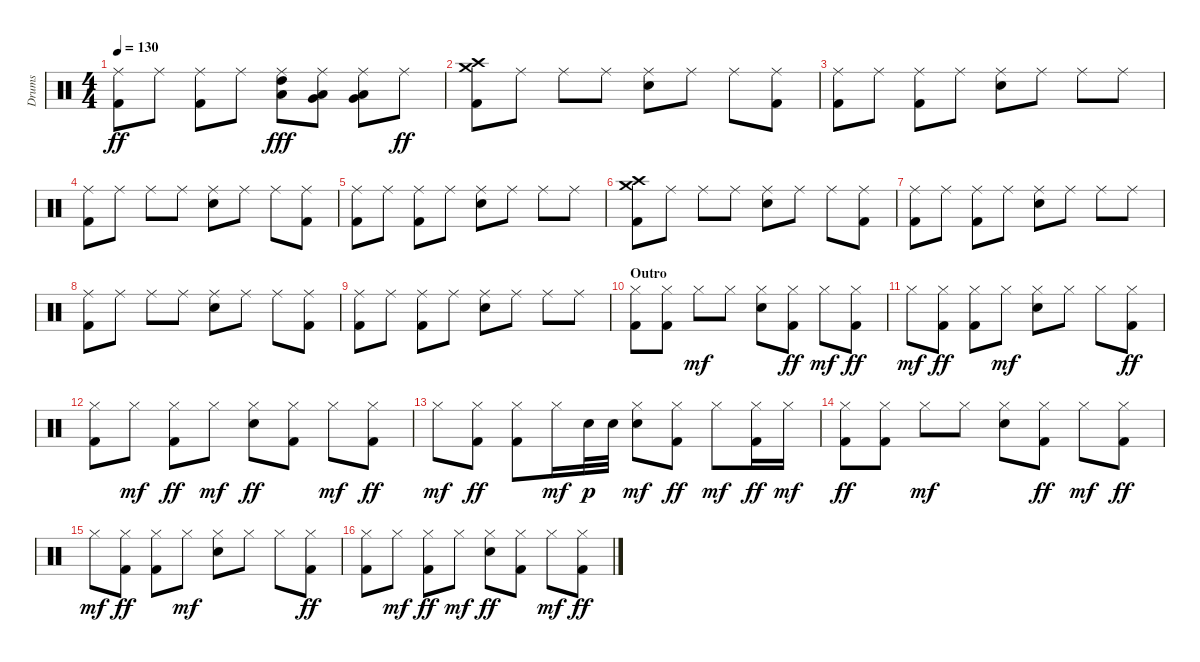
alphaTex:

\track ("Drums" "Drums") {instrument percussion}
\staff {score}
\articulation defaults
\ts (4 4)
\tempo 130
\clef neutral
\ks c
("Ride (middle)" "Kick (hit) 2").8{dy ff} "Ride (middle)".8 ("Ride (middle)" "Kick (hit) 2").8 "Ride (middle)".8 ("Ride (middle)" "Low Tom (hit)" "High Tom (hit)").8{dy fff} ("Ride (middle)" "Very Low Tom (hit)" "Low Tom (hit)").8 ("Ride (middle)" "Low Floor Tom (hit)" "Very Low Tom (hit)").8 "Ride (middle)".8{dy ff} |
("Kick (hit) 2" "Crash medium (hit)" "Crash high (hit)").8 "Ride (middle)".8 "Ride (middle)".8 "Ride (middle)".8 ("Ride (middle)" "Snare (hit) 2").8 "Ride (middle)".8 "Ride (middle)".8 ("Ride (middle)" "Kick (hit) 2").8 |
("Ride (middle)" "Kick (hit) 2").8 "Ride (middle)".8 ("Ride (middle)" "Kick (hit) 2").8 "Ride (middle)".8 ("Ride (middle)" "Snare (hit) 2").8 "Ride (middle)".8 "Ride (middle)".8 "Ride (middle)".8 |
("Ride (middle)" "Kick (hit) 2").8 "Ride (middle)".8 "Ride (middle)".8 "Ride (middle)".8 ("Ride (middle)" "Snare (hit) 2").8 "Ride (middle)".8 "Ride (middle)".8 ("Ride (middle)" "Kick (hit) 2").8 |
("Ride (middle)" "Kick (hit) 2").8 "Ride (middle)".8 ("Ride (middle)" "Kick (hit) 2").8 "Ride (middle)".8 ("Ride (middle)" "Snare (hit) 2").8 "Ride (middle)".8 "Ride (middle)".8 "Ride (middle)".8 |
("Kick (hit) 2" "Crash medium (hit)" "Crash high (hit)").8 "Ride (middle)".8 "Ride (middle)".8 "Ride (middle)".8 ("Ride (middle)" "Snare (hit) 2").8 "Ride (middle)".8 "Ride (middle)".8 ("Ride (middle)" "Kick (hit) 2").8 |
("Ride (middle)" "Kick (hit) 2").8 "Ride (middle)".8 ("Ride (middle)" "Kick (hit) 2").8 "Ride (middle)".8 ("Ride (middle)" "Snare (hit) 2").8 "Ride (middle)".8 "Ride (middle)".8 "Ride (middle)".8 |
("Ride (middle)" "Kick (hit) 2").8 "Ride (middle)".8 "Ride (middle)".8 "Ride (middle)".8 ("Ride (middle)" "Snare (hit) 2").8 "Ride (middle)".8 "Ride (middle)".8 ("Ride (middle)" "Kick (hit) 2").8 |
("Ride (middle)" "Kick (hit) 2").8 "Ride (middle)".8 ("Ride (middle)" "Kick (hit) 2").8 "Ride (middle)".8 ("Ride (middle)" "Snare (hit) 2").8 "Ride (middle)".8 "Ride (middle)".8 "Ride (middle)".8 |
\section ("" "Outro")
("Hi-Hat (closed)" "Kick (hit) 2").8{volume 7} ("Hi-Hat (closed)" "Kick (hit) 2").8 "Hi-Hat (closed)".8{dy mf} "Hi-Hat (closed)".8 ("Hi-Hat (closed)" "Snare (hit) 2").8 ("Hi-Hat (closed)" "Kick (hit) 2").8{dy ff} "Hi-Hat (closed)".8{dy mf} ("Hi-Hat (closed)" "Kick (hit) 2").8{dy ff} |
"Hi-Hat (closed)".8{dy mf} ("Hi-Hat (closed)" "Kick (hit) 2").8{dy ff} ("Hi-Hat (closed)" "Kick (hit) 2").8 "Hi-Hat (closed)".8{dy mf} ("Hi-Hat (closed)" "Snare (hit) 2").8 "Hi-Hat (closed)".8 "Hi-Hat (closed)".8 ("Hi-Hat (closed)" "Kick (hit) 2").8{dy ff} |
("Hi-Hat (closed)" "Kick (hit) 2").8 "Hi-Hat (closed)".8{dy mf} ("Hi-Hat (closed)" "Kick (hit) 2").8{dy ff} "Hi-Hat (closed)".8{dy mf} ("Hi-Hat (closed)" "Snare (hit) 2").8{dy ff} ("Hi-Hat (closed)" "Kick (hit) 2").8 "Hi-Hat (closed)".8{dy mf} ("Hi-Hat (closed)" "Kick (hit) 2").8{dy ff} |
"Hi-Hat (closed)".8{dy mf} ("Hi-Hat (closed)" "Kick (hit) 2").8{dy ff} ("Hi-Hat (closed)" "Kick (hit) 2").8 "Hi-Hat (closed)".16{dy mf} "Snare (hit) 2".32{dy p} "Snare (hit) 2".32 ("Hi-Hat (closed)" "Snare (hit) 2").8{dy mf} ("Hi-Hat (closed)" "Kick (hit) 2").8{dy ff} "Hi-Hat (closed)".8{dy mf} ("Hi-Hat (closed)" "Kick (hit) 2").16{dy ff} "Hi-Hat (closed)".16{dy mf} |
("Hi-Hat (closed)" "Kick (hit) 2").8{dy ff} ("Hi-Hat (closed)" "Kick (hit) 2").8 "Hi-Hat (closed)".8{dy mf} "Hi-Hat (closed)".8 ("Hi-Hat (closed)" "Snare (hit) 2").8 ("Hi-Hat (closed)" "Kick (hit) 2").8{dy ff} "Hi-Hat (closed)".8{dy mf} ("Hi-Hat (closed)" "Kick (hit) 2").8{dy ff} |
"Hi-Hat (closed)".8{dy mf} ("Hi-Hat (closed)" "Kick (hit) 2").8{dy ff} ("Hi-Hat (closed)" "Kick (hit) 2").8 "Hi-Hat (closed)".8{dy mf} ("Hi-Hat (closed)" "Snare (hit) 2").8 "Hi-Hat (closed)".8 "Hi-Hat (closed)".8 ("Hi-Hat (closed)" "Kick (hit) 2").8{dy ff} |
("Hi-Hat (closed)" "Kick (hit) 2").8 "Hi-Hat (closed)".8{dy mf} ("Hi-Hat (closed)" "Kick (hit) 2").8{dy ff} "Hi-Hat (closed)".8{dy mf} ("Hi-Hat (closed)" "Snare (hit) 2").8{dy ff} ("Hi-Hat (closed)" "Kick (hit) 2").8 "Hi-Hat (closed)".8{dy mf} ("Hi-Hat (closed)" "Kick (hit) 2").8{dy ff}
